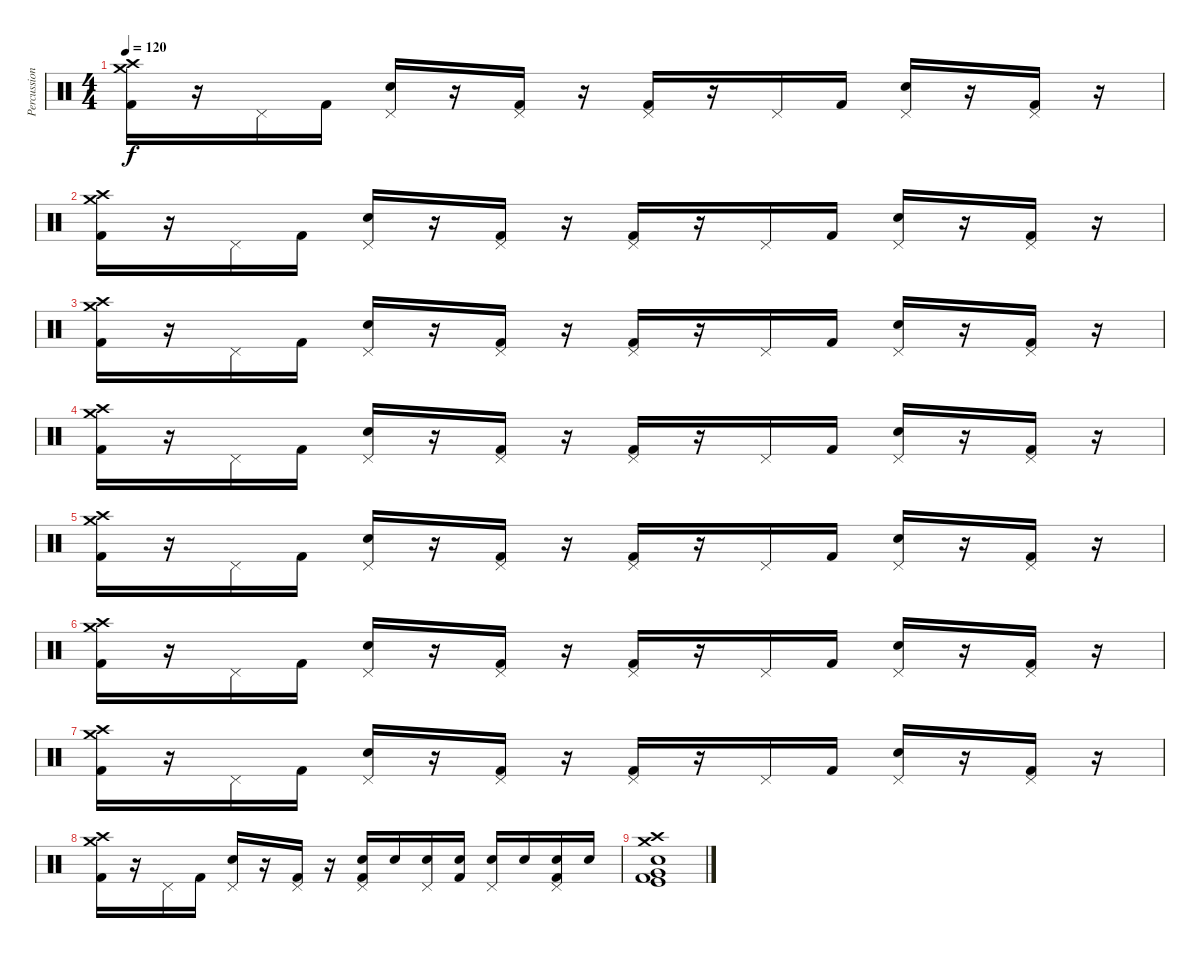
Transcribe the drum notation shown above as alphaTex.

\track ("Percussion" "Percussion") {instrument percussion}
\staff {score}
\articulation defaults
\ts (4 4)
\tempo 120
\clef neutral
\ks c
("Crash medium (hit)" "Crash high (hit)" "Kick (hit) 2").16{dy f} r.16 "Pedal Hi-Hat (hit)".16 "Kick (hit) 2".16 ("Pedal Hi-Hat (hit)" "Snare (hit) 2").16 r.16 ("Pedal Hi-Hat (hit)" "Kick (hit) 2").16 r.16 ("Pedal Hi-Hat (hit)" "Kick (hit) 2").16 r.16 "Pedal Hi-Hat (hit)".16 "Kick (hit) 2".16 ("Pedal Hi-Hat (hit)" "Snare (hit) 2").16 r.16 ("Pedal Hi-Hat (hit)" "Kick (hit) 2").16 r.16 |
("Crash medium (hit)" "Crash high (hit)" "Kick (hit) 2").16 r.16 "Pedal Hi-Hat (hit)".16 "Kick (hit) 2".16 ("Pedal Hi-Hat (hit)" "Snare (hit) 2").16 r.16 ("Pedal Hi-Hat (hit)" "Kick (hit) 2").16 r.16 ("Pedal Hi-Hat (hit)" "Kick (hit) 2").16 r.16 "Pedal Hi-Hat (hit)".16 "Kick (hit) 2".16 ("Pedal Hi-Hat (hit)" "Snare (hit) 2").16 r.16 ("Pedal Hi-Hat (hit)" "Kick (hit) 2").16 r.16 |
("Crash medium (hit)" "Crash high (hit)" "Kick (hit) 2").16 r.16 "Pedal Hi-Hat (hit)".16 "Kick (hit) 2".16 ("Pedal Hi-Hat (hit)" "Snare (hit) 2").16 r.16 ("Pedal Hi-Hat (hit)" "Kick (hit) 2").16 r.16 ("Pedal Hi-Hat (hit)" "Kick (hit) 2").16 r.16 "Pedal Hi-Hat (hit)".16 "Kick (hit) 2".16 ("Pedal Hi-Hat (hit)" "Snare (hit) 2").16 r.16 ("Pedal Hi-Hat (hit)" "Kick (hit) 2").16 r.16 |
("Crash medium (hit)" "Crash high (hit)" "Kick (hit) 2").16 r.16 "Pedal Hi-Hat (hit)".16 "Kick (hit) 2".16 ("Pedal Hi-Hat (hit)" "Snare (hit) 2").16 r.16 ("Pedal Hi-Hat (hit)" "Kick (hit) 2").16 r.16 ("Pedal Hi-Hat (hit)" "Kick (hit) 2").16 r.16 "Pedal Hi-Hat (hit)".16 "Kick (hit) 2".16 ("Pedal Hi-Hat (hit)" "Snare (hit) 2").16 r.16 ("Pedal Hi-Hat (hit)" "Kick (hit) 2").16 r.16 |
("Crash medium (hit)" "Crash high (hit)" "Kick (hit) 2").16 r.16 "Pedal Hi-Hat (hit)".16 "Kick (hit) 2".16 ("Pedal Hi-Hat (hit)" "Snare (hit) 2").16 r.16 ("Pedal Hi-Hat (hit)" "Kick (hit) 2").16 r.16 ("Pedal Hi-Hat (hit)" "Kick (hit) 2").16 r.16 "Pedal Hi-Hat (hit)".16 "Kick (hit) 2".16 ("Pedal Hi-Hat (hit)" "Snare (hit) 2").16 r.16 ("Pedal Hi-Hat (hit)" "Kick (hit) 2").16 r.16 |
("Crash medium (hit)" "Crash high (hit)" "Kick (hit) 2").16 r.16 "Pedal Hi-Hat (hit)".16 "Kick (hit) 2".16 ("Pedal Hi-Hat (hit)" "Snare (hit) 2").16 r.16 ("Pedal Hi-Hat (hit)" "Kick (hit) 2").16 r.16 ("Pedal Hi-Hat (hit)" "Kick (hit) 2").16 r.16 "Pedal Hi-Hat (hit)".16 "Kick (hit) 2".16 ("Pedal Hi-Hat (hit)" "Snare (hit) 2").16 r.16 ("Pedal Hi-Hat (hit)" "Kick (hit) 2").16 r.16 |
("Crash medium (hit)" "Crash high (hit)" "Kick (hit) 2").16 r.16 "Pedal Hi-Hat (hit)".16 "Kick (hit) 2".16 ("Pedal Hi-Hat (hit)" "Snare (hit) 2").16 r.16 ("Pedal Hi-Hat (hit)" "Kick (hit) 2").16 r.16 ("Pedal Hi-Hat (hit)" "Kick (hit) 2").16 r.16 "Pedal Hi-Hat (hit)".16 "Kick (hit) 2".16 ("Pedal Hi-Hat (hit)" "Snare (hit) 2").16 r.16 ("Pedal Hi-Hat (hit)" "Kick (hit) 2").16 r.16 |
("Crash medium (hit)" "Crash high (hit)" "Kick (hit) 2").16 r.16 "Pedal Hi-Hat (hit)".16 "Kick (hit) 2".16 ("Pedal Hi-Hat (hit)" "Snare (hit) 2").16 r.16 ("Pedal Hi-Hat (hit)" "Kick (hit) 2").16 r.16 ("Pedal Hi-Hat (hit)" "Snare (hit) 2" "Kick (hit) 2").16 "Snare (hit) 2".16 ("Pedal Hi-Hat (hit)" "Snare (hit) 2").16 ("Snare (hit) 2" "Kick (hit) 2").16 ("Pedal Hi-Hat (hit)" "Snare (hit) 2").16 "Snare (hit) 2".16 ("Pedal Hi-Hat (hit)" "Snare (hit) 2" "Kick (hit) 2").16 "Snare (hit) 2".16 |
("Crash medium (hit)" "Crash high (hit)" "Very Low Tom (hit)" "Snare (hit) 2" "Kick (hit) 2" "Kick (hit)").1
